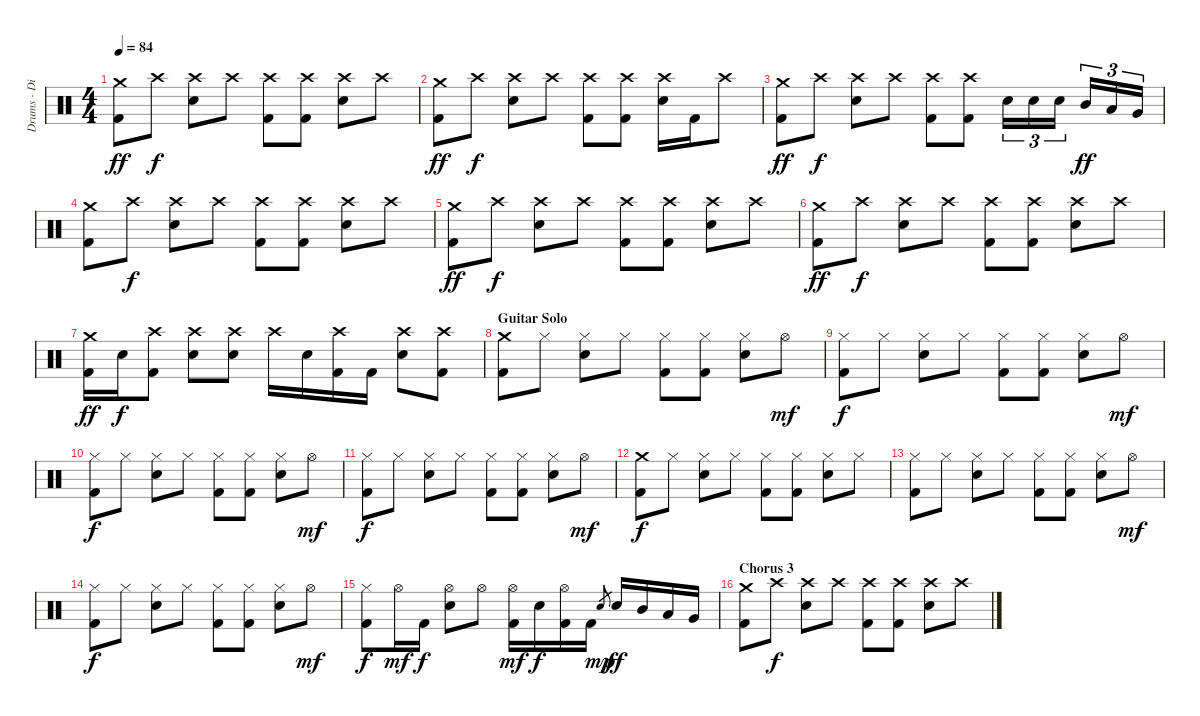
\track ("Drums - Dino Campanella" "Drums - Di") {instrument percussion}
\staff {score}
\articulation defaults
\ts (4 4)
\tempo 84
\clef neutral
\ks c
("Crash medium (hit)" "Kick (hit) 2").8{dy ff} "Crash high (hit)".8{dy f} ("Crash high (hit)" "Electric Snare (hit)").8 "Crash high (hit)".8 ("Crash high (hit)" "Kick (hit) 2").8 ("Crash high (hit)" "Kick (hit) 2").8 ("Crash high (hit)" "Electric Snare (hit)").8 "Crash high (hit)".8 |
("Crash medium (hit)" "Kick (hit) 2").8{dy ff} "Crash high (hit)".8{dy f} ("Crash high (hit)" "Electric Snare (hit)").8 "Crash high (hit)".8 ("Crash high (hit)" "Kick (hit) 2").8 ("Crash high (hit)" "Kick (hit) 2").8 ("Crash high (hit)" "Electric Snare (hit)").16 "Kick (hit) 2".16 "Crash high (hit)".8 |
("Crash medium (hit)" "Kick (hit) 2").8{dy ff} "Crash high (hit)".8{dy f} ("Crash high (hit)" "Electric Snare (hit)").8 "Crash high (hit)".8 ("Crash high (hit)" "Kick (hit) 2").8 ("Crash high (hit)" "Kick (hit) 2").8 "Electric Snare (hit)".16{tu (3 2)} "Electric Snare (hit)".16{tu (3 2)} "Electric Snare (hit)".16{tu (3 2)} "Mid Tom (hit)".16{tu (3 2) dy ff} "Low Tom (hit)".16{tu (3 2)} "Very Low Tom (hit)".16{tu (3 2)} |
("Crash medium (hit)" "Kick (hit) 2").8 "Crash high (hit)".8{dy f} ("Crash high (hit)" "Electric Snare (hit)").8 "Crash high (hit)".8 ("Crash high (hit)" "Kick (hit) 2").8 ("Crash high (hit)" "Kick (hit) 2").8 ("Crash high (hit)" "Electric Snare (hit)").8 "Crash high (hit)".8 |
("Crash medium (hit)" "Kick (hit) 2").8{dy ff} "Crash high (hit)".8{dy f} ("Crash high (hit)" "Electric Snare (hit)").8 "Crash high (hit)".8 ("Crash high (hit)" "Kick (hit) 2").8 ("Crash high (hit)" "Kick (hit) 2").8 ("Crash high (hit)" "Electric Snare (hit)").8 "Crash high (hit)".8 |
("Crash medium (hit)" "Kick (hit) 2").8{dy ff} "Crash high (hit)".8{dy f} ("Crash high (hit)" "Electric Snare (hit)").8 "Crash high (hit)".8 ("Crash high (hit)" "Kick (hit) 2").8 ("Crash high (hit)" "Kick (hit) 2").8 ("Crash high (hit)" "Electric Snare (hit)").8 "Crash high (hit)".8 |
("Crash medium (hit)" "Kick (hit) 2").16{dy ff} "Electric Snare (hit)".16{dy f} ("Crash high (hit)" "Kick (hit) 2").8 ("Crash high (hit)" "Electric Snare (hit)").8 ("Crash high (hit)" "Electric Snare (hit)").8 "Crash high (hit)".16 "Electric Snare (hit)".16 ("Crash high (hit)" "Kick (hit) 2").16 "Kick (hit) 2".16 ("Crash high (hit)" "Electric Snare (hit)").8 ("Crash high (hit)" "Kick (hit) 2").8 |
\section ("" "Guitar Solo")
("Crash medium (hit)" "Kick (hit) 2").8 "Hi-Hat (closed)".8 ("Hi-Hat (closed)" "Electric Snare (hit)").8 "Hi-Hat (closed)".8 ("Hi-Hat (closed)" "Kick (hit) 2").8 ("Hi-Hat (closed)" "Kick (hit) 2").8 ("Hi-Hat (closed)" "Electric Snare (hit)").8 "Hi-Hat (open)".8{dy mf} |
("Hi-Hat (closed)" "Kick (hit) 2").8{dy f} "Hi-Hat (closed)".8 ("Hi-Hat (closed)" "Electric Snare (hit)").8 "Hi-Hat (closed)".8 ("Hi-Hat (closed)" "Kick (hit) 2").8 ("Hi-Hat (closed)" "Kick (hit) 2").8 ("Hi-Hat (closed)" "Electric Snare (hit)").8 "Hi-Hat (open)".8{dy mf} |
("Hi-Hat (closed)" "Kick (hit) 2").8{dy f} "Hi-Hat (closed)".8 ("Hi-Hat (closed)" "Electric Snare (hit)").8 "Hi-Hat (closed)".8 ("Hi-Hat (closed)" "Kick (hit) 2").8 ("Hi-Hat (closed)" "Kick (hit) 2").8 ("Hi-Hat (closed)" "Electric Snare (hit)").8 "Hi-Hat (open)".8{dy mf} |
("Hi-Hat (closed)" "Kick (hit) 2").8{dy f} "Hi-Hat (closed)".8 ("Hi-Hat (closed)" "Electric Snare (hit)").8 "Hi-Hat (closed)".8 ("Hi-Hat (closed)" "Kick (hit) 2").8 ("Hi-Hat (closed)" "Kick (hit) 2").8 ("Hi-Hat (closed)" "Electric Snare (hit)").8 "Hi-Hat (open)".8{dy mf} |
("Crash medium (hit)" "Kick (hit) 2").8{dy f} "Hi-Hat (closed)".8 ("Hi-Hat (closed)" "Electric Snare (hit)").8 "Hi-Hat (closed)".8 ("Hi-Hat (closed)" "Kick (hit) 2").8 ("Hi-Hat (closed)" "Kick (hit) 2").8 ("Hi-Hat (closed)" "Electric Snare (hit)").8 "Hi-Hat (closed)".8 |
("Hi-Hat (closed)" "Kick (hit) 2").8 "Hi-Hat (closed)".8 ("Hi-Hat (closed)" "Electric Snare (hit)").8 "Hi-Hat (closed)".8 ("Hi-Hat (closed)" "Kick (hit) 2").8 ("Hi-Hat (closed)" "Kick (hit) 2").8 ("Hi-Hat (closed)" "Electric Snare (hit)").8 "Hi-Hat (open)".8{dy mf} |
("Hi-Hat (closed)" "Kick (hit) 2").8{dy f} "Hi-Hat (closed)".8 ("Hi-Hat (closed)" "Electric Snare (hit)").8 "Hi-Hat (closed)".8 ("Hi-Hat (closed)" "Kick (hit) 2").8 ("Hi-Hat (closed)" "Kick (hit) 2").8 ("Hi-Hat (closed)" "Electric Snare (hit)").8 "Hi-Hat (open)".8{dy mf} |
("Hi-Hat (closed)" "Kick (hit) 2").8{dy f} "Hi-Hat (open)".16{dy mf} "Kick (hit) 2".16{dy f} ("Hi-Hat (open)" "Electric Snare (hit)").8 "Hi-Hat (open)".8 ("Hi-Hat (open)" "Kick (hit) 2").16{dy mf} "Electric Snare (hit)".16{dy f} ("Hi-Hat (open)" "Kick (hit) 2").16 "Kick (hit) 2".16 "Electric Snare (hit)".8{gr dy mp} "Electric Snare (hit)".16{dy ff} "Mid Tom (hit)".16 "Low Tom (hit)".16 "Very Low Tom (hit)".16 |
\section ("" "Chorus 3")
("Crash medium (hit)" "Kick (hit) 2").8 "Crash high (hit)".8{dy f} ("Crash high (hit)" "Electric Snare (hit)").8 "Crash high (hit)".8 ("Crash high (hit)" "Kick (hit) 2").8 ("Crash high (hit)" "Kick (hit) 2").8 ("Crash high (hit)" "Electric Snare (hit)").8 "Crash high (hit)".8
